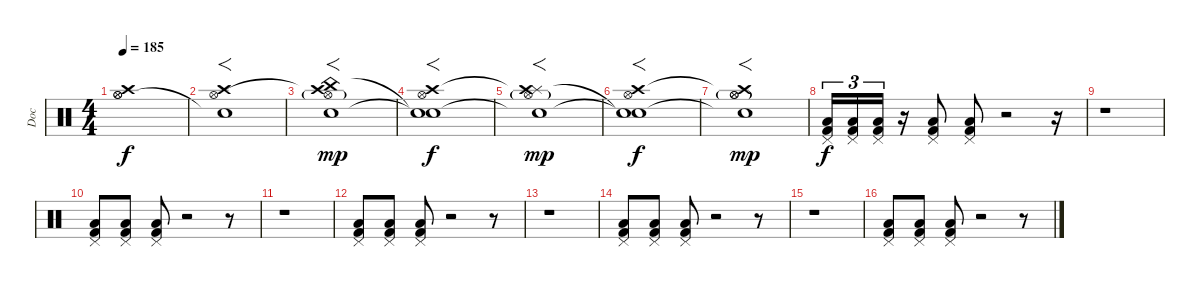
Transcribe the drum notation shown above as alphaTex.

\track ("Doc" "Doc") {instrument percussion}
\staff {score}
\articulation defaults
\ts (4 4)
\tempo 185
\clef neutral
\ks c
("Crash high (hit)" "Hi-Hat (open)" "Hi-Hat (open)").1{dy f} |
("Crash high (hit)" "Hi-Hat (open)" "Snare (hit)"{t}).1{f} |
("China (hit)" "Crash high (hit)"{t} "Hi-Hat (open)"{g} "Snare (hit)").1{f dy mp} |
("Snare (hit)"{t} "Crash high (hit)" "Hi-Hat (open)" "Snare (hit)"{t}).1{f dy f} |
("Splash (hit)" "Crash high (hit)"{t} "Hi-Hat (open)"{g} "Snare (hit)"{t}).1{f dy mp} |
("Snare (hit)"{t} "Crash high (hit)" "Hi-Hat (open)" "Snare (hit)"{t}).1{f dy f} |
("Hi-Hat (open)" "Crash high (hit)"{t} "Hi-Hat (open)"{g} "Snare (hit)"{t}).1{f dy mp} |
("Pedal Hi-Hat (hit)" "Low Floor Tom (hit)" "Kick (hit) 2").16{tu (3 2) dy f} ("Pedal Hi-Hat (hit)" "Low Floor Tom (hit)" "Kick (hit) 2").16{tu (3 2)} ("Pedal Hi-Hat (hit)" "Low Floor Tom (hit)" "Kick (hit) 2").16{tu (3 2)} r.16 ("Pedal Hi-Hat (hit)" "Low Floor Tom (hit)" "Kick (hit) 2").8 ("Pedal Hi-Hat (hit)" "Low Floor Tom (hit)" "Kick (hit) 2").8 r.2 r.16 |
r.1 |
("Pedal Hi-Hat (hit)" "Low Floor Tom (hit)" "Kick (hit) 2").8 ("Pedal Hi-Hat (hit)" "Low Floor Tom (hit)" "Kick (hit) 2").8 ("Pedal Hi-Hat (hit)" "Low Floor Tom (hit)" "Kick (hit) 2").8 r.2 r.8 |
r.1 |
("Pedal Hi-Hat (hit)" "Low Floor Tom (hit)" "Kick (hit) 2").8 ("Pedal Hi-Hat (hit)" "Low Floor Tom (hit)" "Kick (hit) 2").8 ("Pedal Hi-Hat (hit)" "Low Floor Tom (hit)" "Kick (hit) 2").8 r.2 r.8 |
r.1 |
("Pedal Hi-Hat (hit)" "Low Floor Tom (hit)" "Kick (hit) 2").8 ("Pedal Hi-Hat (hit)" "Low Floor Tom (hit)" "Kick (hit) 2").8 ("Pedal Hi-Hat (hit)" "Low Floor Tom (hit)" "Kick (hit) 2").8 r.2 r.8 |
r.1 |
("Pedal Hi-Hat (hit)" "Low Floor Tom (hit)" "Kick (hit) 2").8 ("Pedal Hi-Hat (hit)" "Low Floor Tom (hit)" "Kick (hit) 2").8 ("Pedal Hi-Hat (hit)" "Low Floor Tom (hit)" "Kick (hit) 2").8 r.2 r.8
